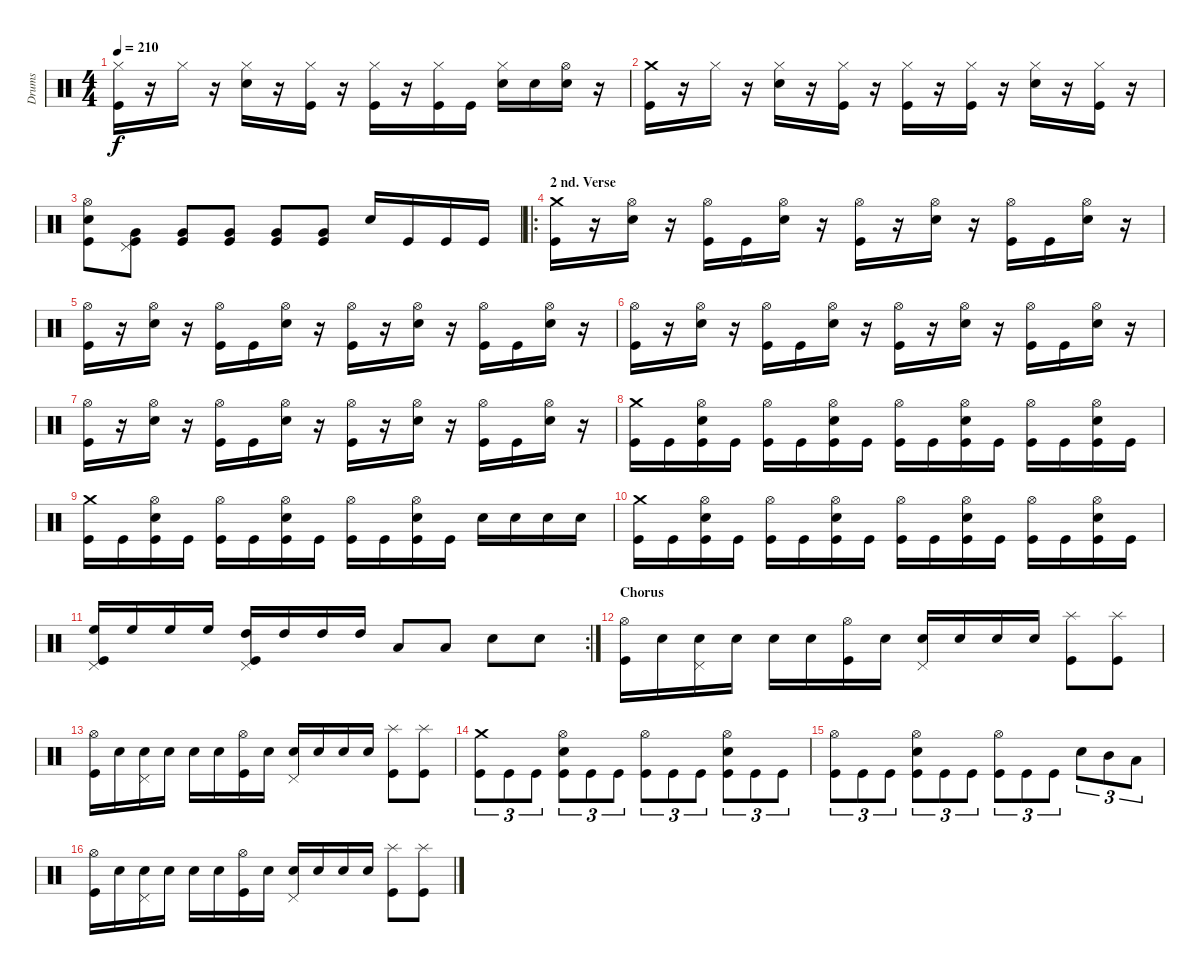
\track ("Drums" "Drums") {instrument percussion}
\staff {score}
\articulation defaults
\ts (4 4)
\tempo 210
\clef neutral
\ks c
("Hi-Hat (closed)" "Kick (hit)").16{dy f} r.16 "Hi-Hat (closed)".16 r.16 ("Hi-Hat (closed)" "Electric Snare (hit)").16 r.16 ("Hi-Hat (closed)" "Kick (hit)").16 r.16 ("Hi-Hat (closed)" "Kick (hit)").16 r.16 ("Hi-Hat (closed)" "Kick (hit)").16 "Kick (hit)".16 ("Hi-Hat (closed)" "Electric Snare (hit)").16 "Electric Snare (hit)".16 ("Hi-Hat (open)" "Electric Snare (hit)").16 r.16 |
("Crash medium (hit)" "Kick (hit)").16 r.16 "Hi-Hat (closed)".16 r.16 ("Hi-Hat (closed)" "Electric Snare (hit)").16 r.16 ("Hi-Hat (closed)" "Kick (hit)").16 r.16 ("Hi-Hat (closed)" "Kick (hit)").16 r.16 ("Hi-Hat (closed)" "Kick (hit)").16 r.16 ("Hi-Hat (closed)" "Electric Snare (hit)").16 r.16 ("Hi-Hat (closed)" "Kick (hit)").16 r.16 |
("Hi-Hat (open)" "Electric Snare (hit)" "Kick (hit)").8 ("Pedal Hi-Hat (hit)" "Very Low Tom (hit)" "Kick (hit)").8 ("Very Low Tom (hit)" "Kick (hit)").8 ("Very Low Tom (hit)" "Kick (hit)").8 ("Very Low Tom (hit)" "Kick (hit)").8 ("Very Low Tom (hit)" "Kick (hit)").8 "Electric Snare (hit)".16 "Kick (hit)".16 "Kick (hit)".16 "Kick (hit)".16 |
\ro
\section ("" "2 nd. Verse")
("Crash medium (hit)" "Kick (hit)").16 r.16 ("Hi-Hat (open)" "Electric Snare (hit)").16 r.16 ("Hi-Hat (open)" "Kick (hit)").16 "Kick (hit)".16 ("Hi-Hat (open)" "Electric Snare (hit)").16 r.16 ("Hi-Hat (open)" "Kick (hit)").16 r.16 ("Hi-Hat (open)" "Electric Snare (hit)").16 r.16 ("Hi-Hat (open)" "Kick (hit)").16 "Kick (hit)".16 ("Hi-Hat (open)" "Electric Snare (hit)").16 r.16 |
("Hi-Hat (open)" "Kick (hit)").16 r.16 ("Hi-Hat (open)" "Electric Snare (hit)").16 r.16 ("Hi-Hat (open)" "Kick (hit)").16 "Kick (hit)".16 ("Hi-Hat (open)" "Electric Snare (hit)").16 r.16 ("Hi-Hat (open)" "Kick (hit)").16 r.16 ("Hi-Hat (open)" "Electric Snare (hit)").16 r.16 ("Hi-Hat (open)" "Kick (hit)").16 "Kick (hit)".16 ("Hi-Hat (open)" "Electric Snare (hit)").16 r.16 |
("Hi-Hat (open)" "Kick (hit)").16 r.16 ("Hi-Hat (open)" "Electric Snare (hit)").16 r.16 ("Hi-Hat (open)" "Kick (hit)").16 "Kick (hit)".16 ("Hi-Hat (open)" "Electric Snare (hit)").16 r.16 ("Hi-Hat (open)" "Kick (hit)").16 r.16 ("Hi-Hat (open)" "Electric Snare (hit)").16 r.16 ("Hi-Hat (open)" "Kick (hit)").16 "Kick (hit)".16 ("Hi-Hat (open)" "Electric Snare (hit)").16 r.16 |
("Hi-Hat (open)" "Kick (hit)").16 r.16 ("Hi-Hat (open)" "Electric Snare (hit)").16 r.16 ("Hi-Hat (open)" "Kick (hit)").16 "Kick (hit)".16 ("Hi-Hat (open)" "Electric Snare (hit)").16 r.16 ("Hi-Hat (open)" "Kick (hit)").16 r.16 ("Hi-Hat (open)" "Electric Snare (hit)").16 r.16 ("Hi-Hat (open)" "Kick (hit)").16 "Kick (hit)".16 ("Hi-Hat (open)" "Electric Snare (hit)").16 r.16 |
("Crash medium (hit)" "Kick (hit)").16 "Kick (hit)".16 ("Hi-Hat (open)" "Electric Snare (hit)" "Kick (hit)").16 "Kick (hit)".16 ("Hi-Hat (open)" "Kick (hit)").16 "Kick (hit)".16 ("Hi-Hat (open)" "Electric Snare (hit)" "Kick (hit)").16 "Kick (hit)".16 ("Hi-Hat (open)" "Kick (hit)").16 "Kick (hit)".16 ("Hi-Hat (open)" "Electric Snare (hit)" "Kick (hit)").16 "Kick (hit)".16 ("Hi-Hat (open)" "Kick (hit)").16 "Kick (hit)".16 ("Hi-Hat (open)" "Electric Snare (hit)" "Kick (hit)").16 "Kick (hit)".16 |
("Crash medium (hit)" "Kick (hit)").16 "Kick (hit)".16 ("Hi-Hat (open)" "Electric Snare (hit)" "Kick (hit)").16 "Kick (hit)".16 ("Hi-Hat (open)" "Kick (hit)").16 "Kick (hit)".16 ("Hi-Hat (open)" "Electric Snare (hit)" "Kick (hit)").16 "Kick (hit)".16 ("Hi-Hat (open)" "Kick (hit)").16 "Kick (hit)".16 ("Hi-Hat (open)" "Electric Snare (hit)" "Kick (hit)").16 "Kick (hit)".16 "Electric Snare (hit)".16 "Electric Snare (hit)".16 "Electric Snare (hit)".16 "Electric Snare (hit)".16 |
("Crash medium (hit)" "Kick (hit)").16 "Kick (hit)".16 ("Hi-Hat (open)" "Electric Snare (hit)" "Kick (hit)").16 "Kick (hit)".16 ("Hi-Hat (open)" "Kick (hit)").16 "Kick (hit)".16 ("Hi-Hat (open)" "Electric Snare (hit)" "Kick (hit)").16 "Kick (hit)".16 ("Hi-Hat (open)" "Kick (hit)").16 "Kick (hit)".16 ("Hi-Hat (open)" "Electric Snare (hit)" "Kick (hit)").16 "Kick (hit)".16 ("Hi-Hat (open)" "Kick (hit)").16 "Kick (hit)".16 ("Hi-Hat (open)" "Electric Snare (hit)" "Kick (hit)").16 "Kick (hit)".16 |
\rc 2
("High Floor Tom (hit)" "Pedal Hi-Hat (hit)" "Kick (hit)").16 "High Floor Tom (hit)".16 "High Floor Tom (hit)".16 "High Floor Tom (hit)".16 ("High Tom (hit)" "Pedal Hi-Hat (hit)" "Kick (hit)").16 "High Tom (hit)".16 "High Tom (hit)".16 "High Tom (hit)".16 "Low Tom (hit)".8 "Low Tom (hit)".8 "Electric Snare (hit)".8 "Electric Snare (hit)".8 |
\section ("" "Chorus")
("Hi-Hat (open)" "Kick (hit)").16 "Electric Snare (hit)".16 ("Pedal Hi-Hat (hit)" "Electric Snare (hit)").16 "Electric Snare (hit)".16 "Electric Snare (hit)".16 "Electric Snare (hit)".16 ("Hi-Hat (open)" "Kick (hit)").16 "Electric Snare (hit)".16 ("Pedal Hi-Hat (hit)" "Electric Snare (hit)").16 "Electric Snare (hit)".16 "Electric Snare (hit)".16 "Electric Snare (hit)".16 ("Splash (hit)" "Kick (hit)").8 ("Splash (hit)" "Kick (hit)").8 |
("Hi-Hat (open)" "Kick (hit)").16 "Electric Snare (hit)".16 ("Pedal Hi-Hat (hit)" "Electric Snare (hit)").16 "Electric Snare (hit)".16 "Electric Snare (hit)".16 "Electric Snare (hit)".16 ("Hi-Hat (open)" "Kick (hit)").16 "Electric Snare (hit)".16 ("Pedal Hi-Hat (hit)" "Electric Snare (hit)").16 "Electric Snare (hit)".16 "Electric Snare (hit)".16 "Electric Snare (hit)".16 ("Splash (hit)" "Kick (hit)").8 ("Splash (hit)" "Kick (hit)").8 |
("Crash medium (hit)" "Kick (hit)").8{tu (3 2)} "Kick (hit)".8{tu (3 2)} "Kick (hit)".8{tu (3 2)} ("Hi-Hat (open)" "Electric Snare (hit)" "Kick (hit)").8{tu (3 2)} "Kick (hit)".8{tu (3 2)} "Kick (hit)".8{tu (3 2)} ("Hi-Hat (open)" "Kick (hit)").8{tu (3 2)} "Kick (hit)".8{tu (3 2)} "Kick (hit)".8{tu (3 2)} ("Hi-Hat (open)" "Electric Snare (hit)" "Kick (hit)").8{tu (3 2)} "Kick (hit)".8{tu (3 2)} "Kick (hit)".8{tu (3 2)} |
("Hi-Hat (open)" "Kick (hit)").8{tu (3 2)} "Kick (hit)".8{tu (3 2)} "Kick (hit)".8{tu (3 2)} ("Hi-Hat (open)" "Electric Snare (hit)" "Kick (hit)").8{tu (3 2)} "Kick (hit)".8{tu (3 2)} "Kick (hit)".8{tu (3 2)} ("Hi-Hat (open)" "Kick (hit)").8{tu (3 2)} "Kick (hit)".8{tu (3 2)} "Kick (hit)".8{tu (3 2)} "Electric Snare (hit)".8{tu (3 2)} "Mid Tom (hit)".8{tu (3 2)} "Low Tom (hit)".8{tu (3 2)} |
("Hi-Hat (open)" "Kick (hit)").16 "Electric Snare (hit)".16 ("Pedal Hi-Hat (hit)" "Electric Snare (hit)").16 "Electric Snare (hit)".16 "Electric Snare (hit)".16 "Electric Snare (hit)".16 ("Hi-Hat (open)" "Kick (hit)").16 "Electric Snare (hit)".16 ("Pedal Hi-Hat (hit)" "Electric Snare (hit)").16 "Electric Snare (hit)".16 "Electric Snare (hit)".16 "Electric Snare (hit)".16 ("Splash (hit)" "Kick (hit)").8 ("Splash (hit)" "Kick (hit)").8
